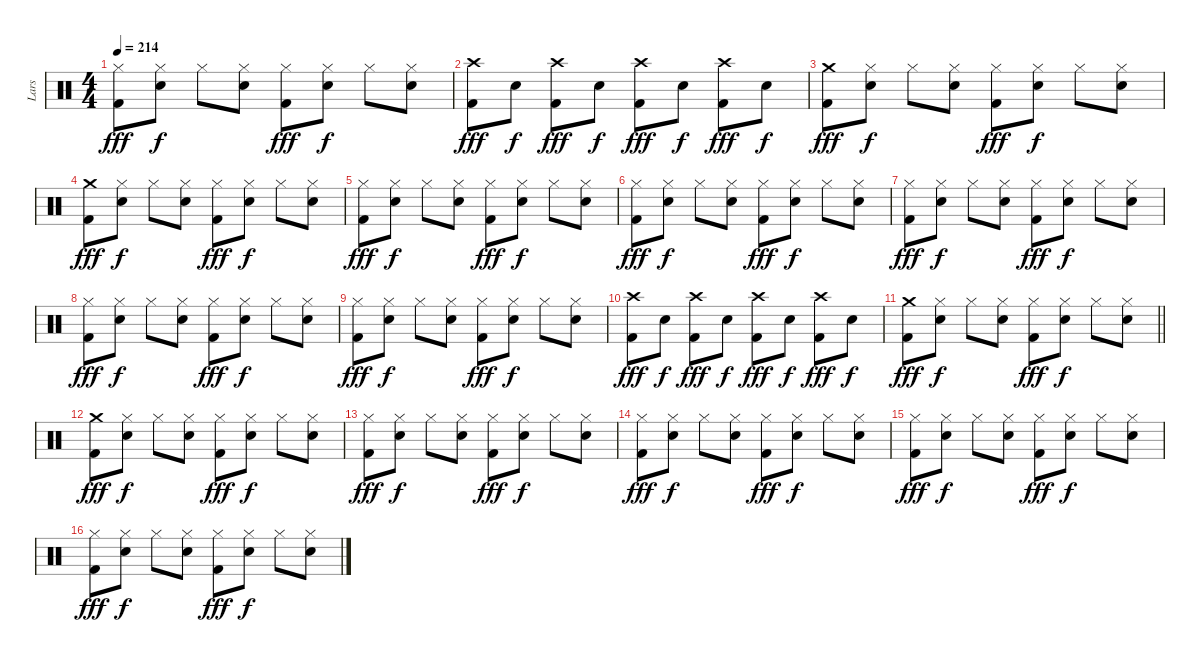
\track ("Lars" "Lars") {instrument percussion}
\staff {score}
\articulation defaults
\ts (4 4)
\tempo 214
\clef neutral
\ks c
("Hi-Hat (closed)" "Kick (hit) 2").8{dy fff} ("Hi-Hat (closed)" "Snare (hit) 2").8{dy f} "Hi-Hat (closed)".8 ("Hi-Hat (closed)" "Snare (hit) 2").8 ("Hi-Hat (closed)" "Kick (hit) 2").8{dy fff} ("Hi-Hat (closed)" "Snare (hit) 2").8{dy f} "Hi-Hat (closed)".8 ("Hi-Hat (closed)" "Snare (hit) 2").8 |
("Crash high (hit)" "Kick (hit) 2").8{dy fff} "Snare (hit) 2".8{dy f} ("Crash high (hit)" "Kick (hit) 2").8{dy fff} "Snare (hit) 2".8{dy f} ("Crash high (hit)" "Kick (hit) 2").8{dy fff} "Snare (hit) 2".8{dy f} ("Crash high (hit)" "Kick (hit) 2").8{dy fff} "Snare (hit) 2".8{dy f} |
("Crash medium (hit)" "Kick (hit) 2").8{dy fff} ("Hi-Hat (closed)" "Snare (hit) 2").8{dy f} "Hi-Hat (closed)".8 ("Hi-Hat (closed)" "Snare (hit) 2").8 ("Hi-Hat (closed)" "Kick (hit) 2").8{dy fff} ("Hi-Hat (closed)" "Snare (hit) 2").8{dy f} "Hi-Hat (closed)".8 ("Hi-Hat (closed)" "Snare (hit) 2").8 |
("Crash medium (hit)" "Kick (hit) 2").8{dy fff} ("Hi-Hat (closed)" "Snare (hit) 2").8{dy f} "Hi-Hat (closed)".8 ("Hi-Hat (closed)" "Snare (hit) 2").8 ("Hi-Hat (closed)" "Kick (hit) 2").8{dy fff} ("Hi-Hat (closed)" "Snare (hit) 2").8{dy f} "Hi-Hat (closed)".8 ("Hi-Hat (closed)" "Snare (hit) 2").8 |
("Hi-Hat (closed)" "Kick (hit) 2").8{dy fff} ("Hi-Hat (closed)" "Snare (hit) 2").8{dy f} "Hi-Hat (closed)".8 ("Hi-Hat (closed)" "Snare (hit) 2").8 ("Hi-Hat (closed)" "Kick (hit) 2").8{dy fff} ("Hi-Hat (closed)" "Snare (hit) 2").8{dy f} "Hi-Hat (closed)".8 ("Hi-Hat (closed)" "Snare (hit) 2").8 |
("Hi-Hat (closed)" "Kick (hit) 2").8{dy fff} ("Hi-Hat (closed)" "Snare (hit) 2").8{dy f} "Hi-Hat (closed)".8 ("Hi-Hat (closed)" "Snare (hit) 2").8 ("Hi-Hat (closed)" "Kick (hit) 2").8{dy fff} ("Hi-Hat (closed)" "Snare (hit) 2").8{dy f} "Hi-Hat (closed)".8 ("Hi-Hat (closed)" "Snare (hit) 2").8 |
("Hi-Hat (closed)" "Kick (hit) 2").8{dy fff} ("Hi-Hat (closed)" "Snare (hit) 2").8{dy f} "Hi-Hat (closed)".8 ("Hi-Hat (closed)" "Snare (hit) 2").8 ("Hi-Hat (closed)" "Kick (hit) 2").8{dy fff} ("Hi-Hat (closed)" "Snare (hit) 2").8{dy f} "Hi-Hat (closed)".8 ("Hi-Hat (closed)" "Snare (hit) 2").8 |
("Hi-Hat (closed)" "Kick (hit) 2").8{dy fff} ("Hi-Hat (closed)" "Snare (hit) 2").8{dy f} "Hi-Hat (closed)".8 ("Hi-Hat (closed)" "Snare (hit) 2").8 ("Hi-Hat (closed)" "Kick (hit) 2").8{dy fff} ("Hi-Hat (closed)" "Snare (hit) 2").8{dy f} "Hi-Hat (closed)".8 ("Hi-Hat (closed)" "Snare (hit) 2").8 |
("Hi-Hat (closed)" "Kick (hit) 2").8{dy fff} ("Hi-Hat (closed)" "Snare (hit) 2").8{dy f} "Hi-Hat (closed)".8 ("Hi-Hat (closed)" "Snare (hit) 2").8 ("Hi-Hat (closed)" "Kick (hit) 2").8{dy fff} ("Hi-Hat (closed)" "Snare (hit) 2").8{dy f} "Hi-Hat (closed)".8 ("Hi-Hat (closed)" "Snare (hit) 2").8 |
("Crash high (hit)" "Kick (hit) 2").8{dy fff} "Snare (hit) 2".8{dy f} ("Crash high (hit)" "Kick (hit) 2").8{dy fff} "Snare (hit) 2".8{dy f} ("Crash high (hit)" "Kick (hit) 2").8{dy fff} "Snare (hit) 2".8{dy f} ("Crash high (hit)" "Kick (hit) 2").8{dy fff} "Snare (hit) 2".8{dy f} |
\barLineRight lightlight
("Crash medium (hit)" "Kick (hit) 2").8{dy fff} ("Hi-Hat (closed)" "Snare (hit) 2").8{dy f} "Hi-Hat (closed)".8 ("Hi-Hat (closed)" "Snare (hit) 2").8 ("Hi-Hat (closed)" "Kick (hit) 2").8{dy fff} ("Hi-Hat (closed)" "Snare (hit) 2").8{dy f} "Hi-Hat (closed)".8 ("Hi-Hat (closed)" "Snare (hit) 2").8 |
("Crash medium (hit)" "Kick (hit) 2").8{dy fff} ("Hi-Hat (closed)" "Snare (hit) 2").8{dy f} "Hi-Hat (closed)".8 ("Hi-Hat (closed)" "Snare (hit) 2").8 ("Hi-Hat (closed)" "Kick (hit) 2").8{dy fff} ("Hi-Hat (closed)" "Snare (hit) 2").8{dy f} "Hi-Hat (closed)".8 ("Hi-Hat (closed)" "Snare (hit) 2").8 |
("Hi-Hat (closed)" "Kick (hit) 2").8{dy fff} ("Hi-Hat (closed)" "Snare (hit) 2").8{dy f} "Hi-Hat (closed)".8 ("Hi-Hat (closed)" "Snare (hit) 2").8 ("Hi-Hat (closed)" "Kick (hit) 2").8{dy fff} ("Hi-Hat (closed)" "Snare (hit) 2").8{dy f} "Hi-Hat (closed)".8 ("Hi-Hat (closed)" "Snare (hit) 2").8 |
("Hi-Hat (closed)" "Kick (hit) 2").8{dy fff} ("Hi-Hat (closed)" "Snare (hit) 2").8{dy f} "Hi-Hat (closed)".8 ("Hi-Hat (closed)" "Snare (hit) 2").8 ("Hi-Hat (closed)" "Kick (hit) 2").8{dy fff} ("Hi-Hat (closed)" "Snare (hit) 2").8{dy f} "Hi-Hat (closed)".8 ("Hi-Hat (closed)" "Snare (hit) 2").8 |
("Hi-Hat (closed)" "Kick (hit) 2").8{dy fff} ("Hi-Hat (closed)" "Snare (hit) 2").8{dy f} "Hi-Hat (closed)".8 ("Hi-Hat (closed)" "Snare (hit) 2").8 ("Hi-Hat (closed)" "Kick (hit) 2").8{dy fff} ("Hi-Hat (closed)" "Snare (hit) 2").8{dy f} "Hi-Hat (closed)".8 ("Hi-Hat (closed)" "Snare (hit) 2").8 |
("Hi-Hat (closed)" "Kick (hit) 2").8{dy fff} ("Hi-Hat (closed)" "Snare (hit) 2").8{dy f} "Hi-Hat (closed)".8 ("Hi-Hat (closed)" "Snare (hit) 2").8 ("Hi-Hat (closed)" "Kick (hit) 2").8{dy fff} ("Hi-Hat (closed)" "Snare (hit) 2").8{dy f} "Hi-Hat (closed)".8 ("Hi-Hat (closed)" "Snare (hit) 2").8
